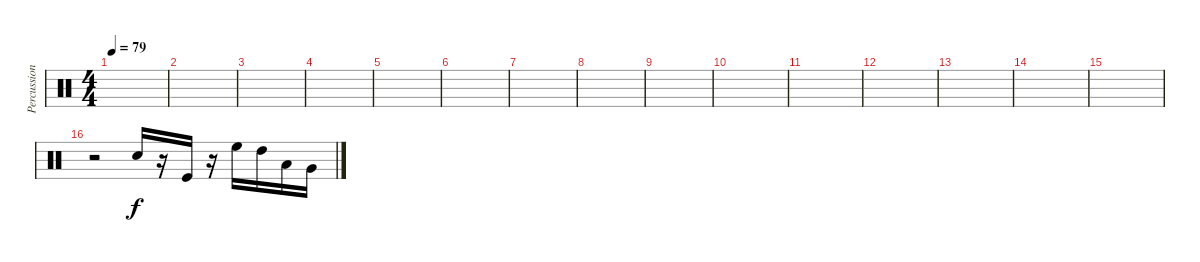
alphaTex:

\track ("Percussion" "Percussion") {instrument percussion}
\staff {score}
\articulation defaults
\ts (4 4)
\tempo 79
\clef neutral
\ks c
|
|
|
|
|
|
|
|
|
|
|
|
|
|
|
r.2 "Electric Snare (hit)".16 r.16 "Kick (hit)".16 r.16 "High Floor Tom (hit)".16 "High Tom (hit)".16 "Low Tom (hit)".16 "Very Low Tom (hit)".16
